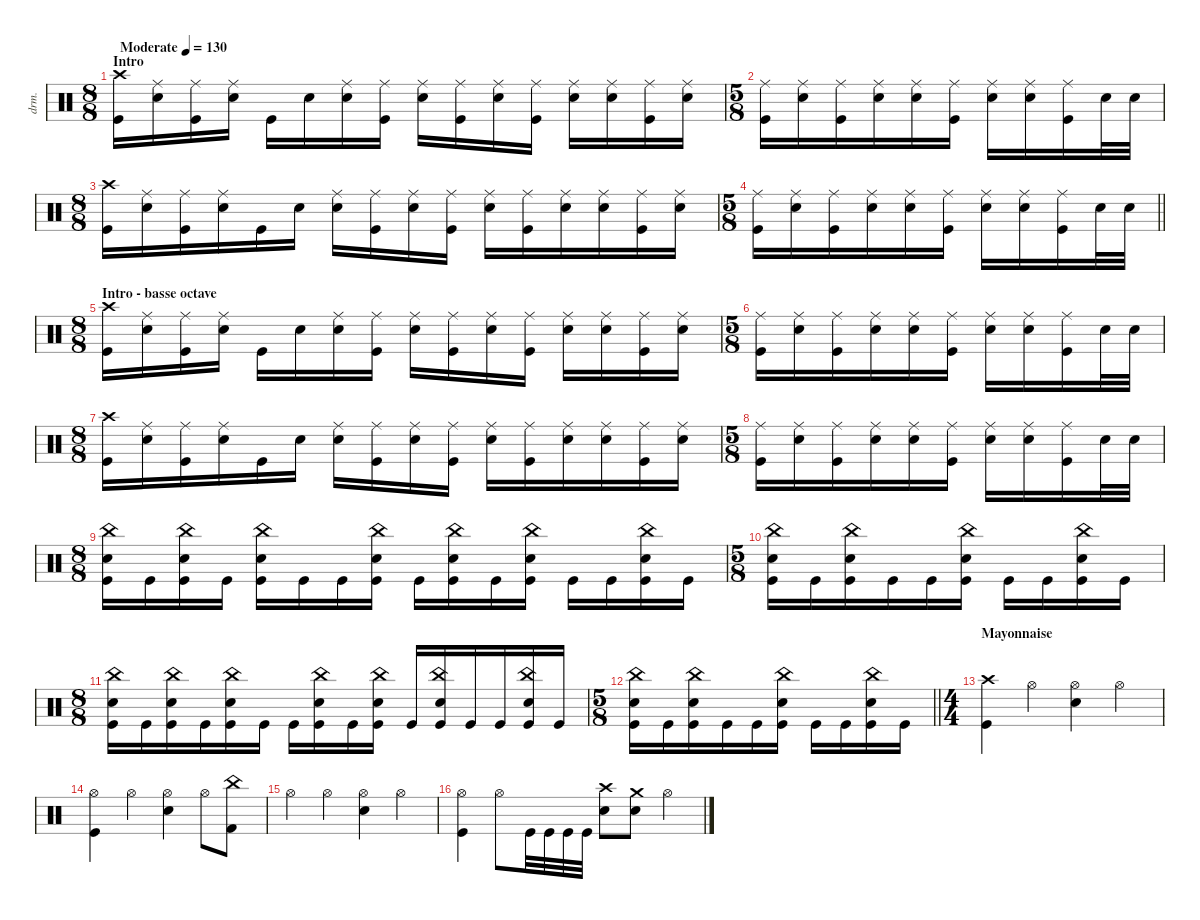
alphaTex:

\defaultSystemsLayout 4
\hideDynamics
\bracketExtendMode nobrackets
\track ("Manouche" "drm.") {instrument percussion}
\staff {score}
\articulation defaults
\ts (8 8)
\beaming (8 2 2 2 2)
\section ("" "Intro")
\tempo (130 "Moderate")
\clef neutral
\ks c
("Crash high (hit)" "Kick (hit)").16{dy f beam Down} ("Snare (hit) 2" "Ride (middle)").16{beam Down} ("Kick (hit)" "Ride (middle)").16{beam Down} ("Snare (hit) 2" "Ride (middle)").16{beam Down} "Kick (hit)".16{beam Down} "Snare (hit) 2".16{beam Down} ("Snare (hit) 2" "Ride (middle)").16{beam Down} ("Kick (hit)" "Ride (middle)").16{beam Down} ("Snare (hit) 2" "Ride (middle)").16{beam Down} ("Kick (hit)" "Ride (middle)").16{beam Down} ("Snare (hit) 2" "Ride (middle)").16{beam Down} ("Ride (middle)" "Kick (hit)").16{beam Down} ("Snare (hit) 2" "Ride (middle)").16{beam Down} ("Snare (hit) 2" "Ride (middle)").16{beam Down} ("Kick (hit)" "Ride (middle)").16{beam Down} ("Snare (hit) 2" "Ride (middle)").16{beam Down} |
\ts (5 8)
\beaming (8 3 2)
("Kick (hit)" "Ride (middle)").16{beam Down} ("Snare (hit) 2" "Ride (middle)").16{beam Down} ("Kick (hit)" "Ride (middle)").16{beam Down} ("Snare (hit) 2" "Ride (middle)").16{beam Down} ("Snare (hit) 2" "Ride (middle)").16{beam Down} ("Kick (hit)" "Ride (middle)").16{beam Down} ("Snare (hit) 2" "Ride (middle)").16{beam Down} ("Snare (hit) 2" "Ride (middle)").16{beam Down} ("Kick (hit)" "Ride (middle)").16{beam Down} "Snare (hit) 2".32{beam Down} "Snare (hit) 2".32{beam Down} |
\ts (8 8)
\beaming (8 3 2 3)
("Crash high (hit)" "Kick (hit)").16{beam Down} ("Snare (hit) 2" "Ride (middle)").16{beam Down} ("Kick (hit)" "Ride (middle)").16{beam Down} ("Snare (hit) 2" "Ride (middle)").16{beam Down} "Kick (hit)".16{beam Down} "Snare (hit) 2".16{beam Down} ("Snare (hit) 2" "Ride (middle)").16{beam Down} ("Kick (hit)" "Ride (middle)").16{beam Down} ("Snare (hit) 2" "Ride (middle)").16{beam Down} ("Kick (hit)" "Ride (middle)").16{beam Down} ("Snare (hit) 2" "Ride (middle)").16{beam Down} ("Ride (middle)" "Kick (hit)").16{beam Down} ("Snare (hit) 2" "Ride (middle)").16{beam Down} ("Snare (hit) 2" "Ride (middle)").16{beam Down} ("Kick (hit)" "Ride (middle)").16{beam Down} ("Snare (hit) 2" "Ride (middle)").16{beam Down} |
\ts (5 8)
\beaming (8 3 2)
\barLineRight lightlight
("Kick (hit)" "Ride (middle)").16{beam Down} ("Snare (hit) 2" "Ride (middle)").16{beam Down} ("Kick (hit)" "Ride (middle)").16{beam Down} ("Snare (hit) 2" "Ride (middle)").16{beam Down} ("Snare (hit) 2" "Ride (middle)").16{beam Down} ("Kick (hit)" "Ride (middle)").16{beam Down} ("Snare (hit) 2" "Ride (middle)").16{beam Down} ("Snare (hit) 2" "Ride (middle)").16{beam Down} ("Kick (hit)" "Ride (middle)").16{beam Down} "Snare (hit) 2".32{beam Down} "Snare (hit) 2".32{beam Down} |
\ts (8 8)
\beaming (8 2 2 2 2)
\section ("" "Intro - basse octave")
("Crash high (hit)" "Kick (hit)").16{beam Down} ("Snare (hit) 2" "Ride (middle)").16{beam Down} ("Kick (hit)" "Ride (middle)").16{beam Down} ("Snare (hit) 2" "Ride (middle)").16{beam Down} "Kick (hit)".16{beam Down} "Snare (hit) 2".16{beam Down} ("Snare (hit) 2" "Ride (middle)").16{beam Down} ("Kick (hit)" "Ride (middle)").16{beam Down} ("Snare (hit) 2" "Ride (middle)").16{beam Down} ("Kick (hit)" "Ride (middle)").16{beam Down} ("Snare (hit) 2" "Ride (middle)").16{beam Down} ("Ride (middle)" "Kick (hit)").16{beam Down} ("Snare (hit) 2" "Ride (middle)").16{beam Down} ("Snare (hit) 2" "Ride (middle)").16{beam Down} ("Kick (hit)" "Ride (middle)").16{beam Down} ("Snare (hit) 2" "Ride (middle)").16{beam Down} |
\ts (5 8)
\beaming (8 3 2)
("Kick (hit)" "Ride (middle)").16{beam Down} ("Snare (hit) 2" "Ride (middle)").16{beam Down} ("Kick (hit)" "Ride (middle)").16{beam Down} ("Snare (hit) 2" "Ride (middle)").16{beam Down} ("Snare (hit) 2" "Ride (middle)").16{beam Down} ("Kick (hit)" "Ride (middle)").16{beam Down} ("Snare (hit) 2" "Ride (middle)").16{beam Down} ("Snare (hit) 2" "Ride (middle)").16{beam Down} ("Kick (hit)" "Ride (middle)").16{beam Down} "Snare (hit) 2".32{beam Down} "Snare (hit) 2".32{beam Down} |
\ts (8 8)
\beaming (8 3 2 3)
("Crash high (hit)" "Kick (hit)").16{beam Down} ("Snare (hit) 2" "Ride (middle)").16{beam Down} ("Kick (hit)" "Ride (middle)").16{beam Down} ("Snare (hit) 2" "Ride (middle)").16{beam Down} "Kick (hit)".16{beam Down} "Snare (hit) 2".16{beam Down} ("Snare (hit) 2" "Ride (middle)").16{beam Down} ("Kick (hit)" "Ride (middle)").16{beam Down} ("Snare (hit) 2" "Ride (middle)").16{beam Down} ("Kick (hit)" "Ride (middle)").16{beam Down} ("Snare (hit) 2" "Ride (middle)").16{beam Down} ("Ride (middle)" "Kick (hit)").16{beam Down} ("Snare (hit) 2" "Ride (middle)").16{beam Down} ("Snare (hit) 2" "Ride (middle)").16{beam Down} ("Kick (hit)" "Ride (middle)").16{beam Down} ("Snare (hit) 2" "Ride (middle)").16{beam Down} |
\ts (5 8)
\beaming (8 3 2)
("Kick (hit)" "Ride (middle)").16{beam Down} ("Snare (hit) 2" "Ride (middle)").16{beam Down} ("Kick (hit)" "Ride (middle)").16{beam Down} ("Snare (hit) 2" "Ride (middle)").16{beam Down} ("Snare (hit) 2" "Ride (middle)").16{beam Down} ("Kick (hit)" "Ride (middle)").16{beam Down} ("Snare (hit) 2" "Ride (middle)").16{beam Down} ("Snare (hit) 2" "Ride (middle)").16{beam Down} ("Kick (hit)" "Ride (middle)").16{beam Down} "Snare (hit) 2".32{beam Down} "Snare (hit) 2".32{beam Down} |
\ts (8 8)
\beaming (8 2 2 2 2)
("Snare (hit) 2" "China (hit)" "Kick (hit)").16{beam Down} "Kick (hit)".16{beam Down} ("Kick (hit)" "Snare (hit) 2" "China (hit)").16{beam Down} "Kick (hit)".16{beam Down} ("Kick (hit)" "Snare (hit) 2" "China (hit)").16{beam Down} "Kick (hit)".16{beam Down} "Kick (hit)".16{beam Down} ("Kick (hit)" "Snare (hit) 2" "China (hit)").16{beam Down} "Kick (hit)".16{beam Down} ("Kick (hit)" "Snare (hit) 2" "China (hit)").16{beam Down} "Kick (hit)".16{beam Down} ("Kick (hit)" "Snare (hit) 2" "China (hit)").16{beam Down} "Kick (hit)".16{beam Down} "Kick (hit)".16{beam Down} ("Kick (hit)" "Snare (hit) 2" "China (hit)").16{beam Down} "Kick (hit)".16{beam Down} |
\ts (5 8)
\beaming (8 3 2)
("Kick (hit)" "Snare (hit) 2" "China (hit)").16{beam Down} "Kick (hit)".16{beam Down} ("Kick (hit)" "Snare (hit) 2" "China (hit)").16{beam Down} "Kick (hit)".16{beam Down} "Kick (hit)".16{beam Down} ("Kick (hit)" "Snare (hit) 2" "China (hit)").16{beam Down} "Kick (hit)".16{beam Down} "Kick (hit)".16{beam Down} ("Kick (hit)" "Snare (hit) 2" "China (hit)").16{beam Down} "Kick (hit)".16{beam Down} |
\ts (8 8)
\beaming (8 3 2 3)
("Snare (hit) 2" "China (hit)" "Kick (hit)").16{beam Down} "Kick (hit)".16{beam Down} ("Kick (hit)" "Snare (hit) 2" "China (hit)").16{beam Down} "Kick (hit)".16{beam Down} ("Kick (hit)" "Snare (hit) 2" "China (hit)").16{beam Down} "Kick (hit)".16{beam Down} "Kick (hit)".16{beam Down} ("Kick (hit)" "Snare (hit) 2" "China (hit)").16{beam Down} "Kick (hit)".16{beam Down} ("Kick (hit)" "Snare (hit) 2" "China (hit)").16{beam Down} "Kick (hit)".16{beam Up} ("Kick (hit)" "Snare (hit) 2" "China (hit)").16{beam Up} "Kick (hit)".16{beam Up} "Kick (hit)".16{beam Up} ("Kick (hit)" "Snare (hit) 2" "China (hit)").16{beam Up} "Kick (hit)".16{beam Up} |
\ts (5 8)
\beaming (8 3 2)
\barLineRight lightlight
("Kick (hit)" "Snare (hit) 2" "China (hit)").16{beam Down} "Kick (hit)".16{beam Down} ("Kick (hit)" "Snare (hit) 2" "China (hit)").16{beam Down} "Kick (hit)".16{beam Down} "Kick (hit)".16{beam Down} ("Kick (hit)" "Snare (hit) 2" "China (hit)").16{beam Down} "Kick (hit)".16{beam Down} "Kick (hit)".16{beam Down} ("Kick (hit)" "Snare (hit) 2" "China (hit)").16{beam Down} "Kick (hit)".16{beam Down} |
\ts (4 4)
\beaming (8 2 2 2 2)
\section ("" "Mayonnaise")
("Crash high (hit)" "Kick (hit)").4{beam Down} "Hi-Hat (open)".4{beam Down} ("Hi-Hat (open)" "Snare (hit) 2").4{beam Down} "Hi-Hat (open)".4{beam Down} |
("Hi-Hat (open)" "Kick (hit)").4{beam Down} "Hi-Hat (open)".4{beam Down} ("Hi-Hat (open)" "Snare (hit) 2").4{beam Down} "Hi-Hat (open)".8{beam Down} ("China (hit)" "Kick (hit) 2").8{beam Down} |
"Hi-Hat (open)".4{beam Down} "Hi-Hat (open)".4{beam Down} ("Hi-Hat (open)" "Snare (hit) 2").4{beam Down} "Hi-Hat (open)".4{beam Down} |
("Hi-Hat (open)" "Kick (hit)").4{beam Down} "Hi-Hat (open)".8{beam Down} "Kick (hit)".32{beam Down} "Kick (hit)".32{beam Down} "Kick (hit)".32{beam Down} "Kick (hit)".32{beam Down} ("Snare (hit) 2" "Crash high (hit)").8{beam Down} ("Crash medium (hit)" "Snare (hit) 2").8{beam Down} "Hi-Hat (open)".4{beam Down}
